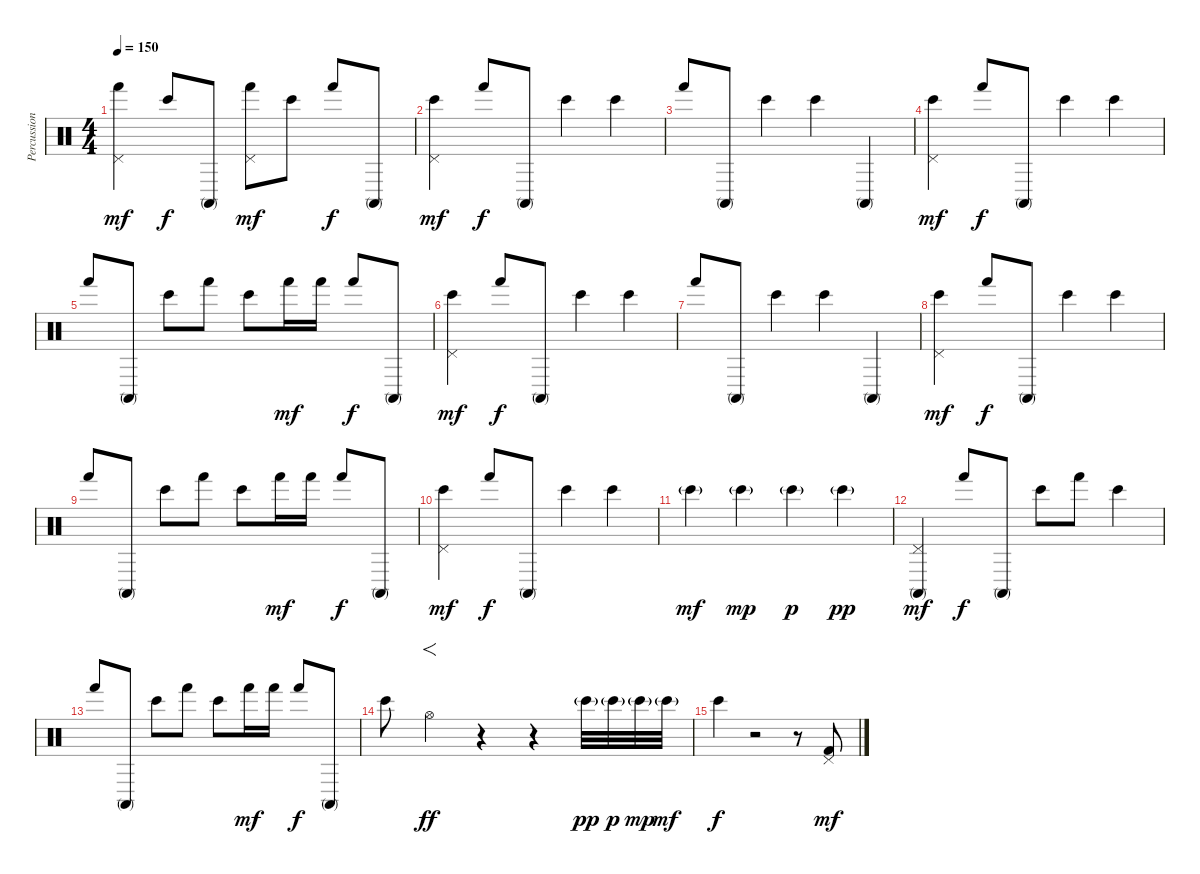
\track ("Percussions" "Percussion") {instrument percussion}
\staff {score}
\articulation defaults
\ts (4 4)
\tempo 150
\clef neutral
\ks c
("Pedal Hi-Hat (hit)" "Hand (hit)").4{dy mf} "Bongo High (hit)".8{dy f} "Conga high (mute)".8 ("Pedal Hi-Hat (hit)" "Hand (hit)").8{dy mf} "Bongo High (hit)".8 "Hand (hit)".8{dy f} "Conga high (mute)".8 |
("Pedal Hi-Hat (hit)" "Bongo High (hit)").4{dy mf} "Hand (hit)".8{dy f} "Conga high (mute)".8 "Bongo High (hit)".4 "Bongo High (hit)".4 |
"Hand (hit)".8 "Conga high (mute)".8 "Bongo High (hit)".4 "Bongo High (hit)".4 "Conga high (mute)".4 |
("Pedal Hi-Hat (hit)" "Bongo High (hit)").4{dy mf} "Hand (hit)".8{dy f} "Conga high (mute)".8 "Bongo High (hit)".4 "Bongo High (hit)".4 |
"Hand (hit)".8 "Conga high (mute)".8 "Bongo High (hit)".8 "Hand (hit)".8 "Bongo High (hit)".8 "Hand (hit)".16{dy mf} "Hand (hit)".16 "Hand (hit)".8{dy f} "Conga high (mute)".8 |
("Pedal Hi-Hat (hit)" "Bongo High (hit)").4{dy mf} "Hand (hit)".8{dy f} "Conga high (mute)".8 "Bongo High (hit)".4 "Bongo High (hit)".4 |
"Hand (hit)".8 "Conga high (mute)".8 "Bongo High (hit)".4 "Bongo High (hit)".4 "Conga high (mute)".4 |
("Pedal Hi-Hat (hit)" "Bongo High (hit)").4{dy mf} "Hand (hit)".8{dy f} "Conga high (mute)".8 "Bongo High (hit)".4 "Bongo High (hit)".4 |
"Hand (hit)".8 "Conga high (mute)".8 "Bongo High (hit)".8 "Hand (hit)".8 "Bongo High (hit)".8 "Hand (hit)".16{dy mf} "Hand (hit)".16 "Hand (hit)".8{dy f} "Conga high (mute)".8 |
("Pedal Hi-Hat (hit)" "Bongo High (hit)").4{dy mf} "Hand (hit)".8{dy f} "Conga high (mute)".8 "Bongo High (hit)".4 "Bongo High (hit)".4 |
"Bongo High (hit)"{g}.4{dy mf} "Bongo High (hit)"{g}.4{dy mp} "Bongo High (hit)"{g}.4{dy p} "Bongo High (hit)"{g}.4{dy pp} |
("Pedal Hi-Hat (hit)" "Conga high (mute)").4{dy mf} "Hand (hit)".8{dy f} "Conga high (mute)".8 "Bongo High (hit)".8 "Hand (hit)".8 "Bongo High (hit)".4 |
"Hand (hit)".8 "Conga high (mute)".8 "Bongo High (hit)".8 "Hand (hit)".8 "Bongo High (hit)".8 "Hand (hit)".16{dy mf} "Hand (hit)".16 "Hand (hit)".8{dy f} "Conga high (mute)".8 |
"Bongo High (hit)".8 "Hi-Hat (open)".4{f dy ff} r.4 r.4 "Bongo High (hit)"{g}.32{dy pp} "Bongo High (hit)"{g}.32{dy p} "Bongo High (hit)"{g}.32{dy mp} "Bongo High (hit)"{g}.32{dy mf} |
"Bongo High (hit)".4{dy f} r.2 r.8 ("Pedal Hi-Hat (hit)" "Kick (hit) 2").8{dy mf}
